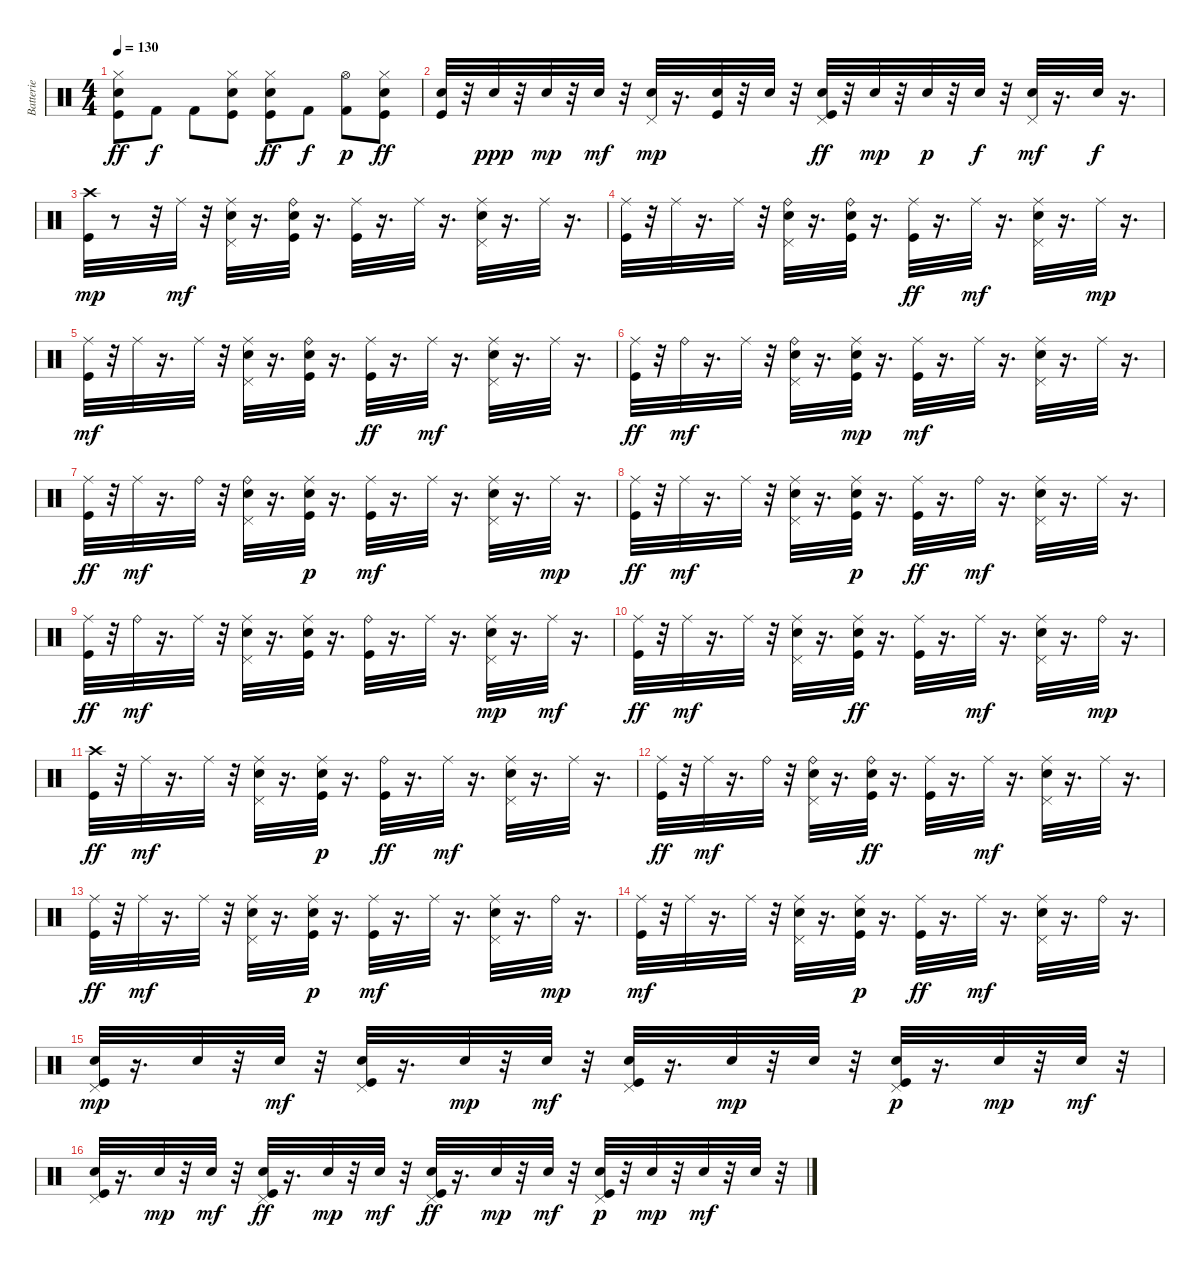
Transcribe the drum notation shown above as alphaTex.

\track ("Batterie" "Batterie") {instrument percussion}
\staff {score}
\articulation defaults
\ts (4 4)
\tempo 130
\clef neutral
\ks c
("Kick (hit)" "Electric Snare (hit)" "Hi-Hat (closed)").8{dy ff} "Kick (hit) 2".8{dy f} "Kick (hit) 2".8 ("Hi-Hat (closed)" "Kick (hit)" "Electric Snare (hit)").8 ("Kick (hit)" "Hi-Hat (closed)" "Electric Snare (hit)").8{dy ff} "Kick (hit) 2".8{dy f} ("Hi-Hat (open)" "Kick (hit) 2").8{dy p} ("Kick (hit)" "Hi-Hat (closed)" "Electric Snare (hit)").8{dy ff} |
("Electric Snare (hit)" "Kick (hit)").32 r.32 "Electric Snare (hit)".32{dy ppp} r.32 "Electric Snare (hit)".32{dy mp} r.32 "Electric Snare (hit)".32{dy mf} r.32 ("Pedal Hi-Hat (hit)" "Electric Snare (hit)").32{dy mp} r.16{d} ("Electric Snare (hit)" "Kick (hit)").32 r.32 "Electric Snare (hit)".32 r.32 ("Electric Snare (hit)" "Pedal Hi-Hat (hit)" "Kick (hit)").32{dy ff} r.32 "Electric Snare (hit)".32{dy mp} r.32 "Electric Snare (hit)".32{dy p} r.32 "Electric Snare (hit)".32{dy f} r.32 ("Pedal Hi-Hat (hit)" "Electric Snare (hit)").32{dy mf} r.16{d} "Electric Snare (hit)".32{dy f} r.16{d} |
("Kick (hit)" "Crash high (hit)").32{dy mp} r.8 r.32 "Ride (middle)".32{dy mf} r.32 ("Pedal Hi-Hat (hit)" "Electric Snare (hit)" "Ride (middle)").32 r.16{d} ("Kick (hit)" "Electric Snare (hit)" "Ride (bell)").32 r.16{d} ("Kick (hit)" "Ride (middle)").32 r.16{d} "Ride (middle)".32 r.16{d} ("Pedal Hi-Hat (hit)" "Ride (middle)" "Electric Snare (hit)").32 r.16{d} "Ride (middle)".32 r.16{d} |
("Kick (hit)" "Ride (middle)").32 r.32 "Ride (middle)".32 r.16{d} "Ride (middle)".32 r.32 ("Electric Snare (hit)" "Pedal Hi-Hat (hit)" "Ride (bell)").32 r.16{d} ("Kick (hit)" "Electric Snare (hit)" "Ride (bell)").32 r.16{d} ("Ride (middle)" "Kick (hit)").32{dy ff} r.16{d} "Ride (middle)".32{dy mf} r.16{d} ("Pedal Hi-Hat (hit)" "Ride (middle)" "Electric Snare (hit)").32 r.16{d} "Ride (middle)".32{dy mp} r.16{d} |
("Kick (hit)" "Ride (middle)").32{dy mf} r.32 "Ride (middle)".32 r.16{d} "Ride (middle)".32 r.32 ("Electric Snare (hit)" "Pedal Hi-Hat (hit)" "Ride (middle)").32 r.16{d} ("Kick (hit)" "Electric Snare (hit)" "Ride (bell)").32 r.16{d} ("Ride (middle)" "Kick (hit)").32{dy ff} r.16{d} "Ride (middle)".32{dy mf} r.16{d} ("Pedal Hi-Hat (hit)" "Electric Snare (hit)" "Ride (middle)").32 r.16{d} "Ride (middle)".32 r.16{d} |
("Kick (hit)" "Ride (middle)").32{dy ff} r.32 "Ride (bell)".32{dy mf} r.16{d} "Ride (middle)".32 r.32 ("Ride (bell)" "Pedal Hi-Hat (hit)" "Electric Snare (hit)").32 r.16{d} ("Electric Snare (hit)" "Ride (middle)" "Kick (hit)").32{dy mp} r.16{d} ("Kick (hit)" "Ride (middle)").32{dy mf} r.16{d} "Ride (middle)".32 r.16{d} ("Pedal Hi-Hat (hit)" "Ride (middle)" "Electric Snare (hit)").32 r.16{d} "Ride (middle)".32 r.16{d} |
("Ride (middle)" "Kick (hit)").32{dy ff} r.32 "Ride (middle)".32{dy mf} r.16{d} "Ride (bell)".32 r.32 ("Pedal Hi-Hat (hit)" "Ride (bell)" "Electric Snare (hit)").32 r.16{d} ("Electric Snare (hit)" "Ride (middle)" "Kick (hit)").32{dy p} r.16{d} ("Kick (hit)" "Ride (middle)").32{dy mf} r.16{d} "Ride (middle)".32 r.16{d} ("Pedal Hi-Hat (hit)" "Ride (middle)" "Electric Snare (hit)").32 r.16{d} "Ride (middle)".32{dy mp} r.16{d} |
("Ride (middle)" "Kick (hit)").32{dy ff} r.32 "Ride (middle)".32{dy mf} r.16{d} "Ride (middle)".32 r.32 ("Pedal Hi-Hat (hit)" "Ride (middle)" "Electric Snare (hit)").32 r.16{d} ("Electric Snare (hit)" "Ride (middle)" "Kick (hit)").32{dy p} r.16{d} ("Kick (hit)" "Ride (middle)").32{dy ff} r.16{d} "Ride (bell)".32{dy mf} r.16{d} ("Ride (middle)" "Pedal Hi-Hat (hit)" "Electric Snare (hit)").32 r.16{d} "Ride (middle)".32 r.16{d} |
("Kick (hit)" "Ride (middle)").32{dy ff} r.32 "Ride (bell)".32{dy mf} r.16{d} "Ride (middle)".32 r.32 ("Ride (middle)" "Pedal Hi-Hat (hit)" "Electric Snare (hit)").32 r.16{d} ("Electric Snare (hit)" "Kick (hit)" "Ride (middle)").32 r.16{d} ("Kick (hit)" "Ride (bell)").32 r.16{d} "Ride (middle)".32 r.16{d} ("Ride (middle)" "Pedal Hi-Hat (hit)" "Electric Snare (hit)").32{dy mp} r.16{d} "Ride (middle)".32{dy mf} r.16{d} |
("Ride (middle)" "Kick (hit)").32{dy ff} r.32 "Ride (middle)".32{dy mf} r.16{d} "Ride (middle)".32 r.32 ("Electric Snare (hit)" "Pedal Hi-Hat (hit)" "Ride (middle)").32 r.16{d} ("Kick (hit)" "Ride (middle)" "Electric Snare (hit)").32{dy ff} r.16{d} ("Ride (middle)" "Kick (hit)").32 r.16{d} "Ride (middle)".32{dy mf} r.16{d} ("Pedal Hi-Hat (hit)" "Ride (middle)" "Electric Snare (hit)").32 r.16{d} "Ride (bell)".32{dy mp} r.16{d} |
("Crash high (hit)" "Kick (hit)").32{dy ff} r.32 "Ride (middle)".32{dy mf} r.16{d} "Ride (middle)".32 r.32 ("Pedal Hi-Hat (hit)" "Ride (middle)" "Electric Snare (hit)").32 r.16{d} ("Electric Snare (hit)" "Ride (middle)" "Kick (hit)").32{dy p} r.16{d} ("Ride (bell)" "Kick (hit)").32{dy ff} r.16{d} "Ride (middle)".32{dy mf} r.16{d} ("Ride (middle)" "Electric Snare (hit)" "Pedal Hi-Hat (hit)").32 r.16{d} "Ride (middle)".32 r.16{d} |
("Ride (middle)" "Kick (hit)").32{dy ff} r.32 "Ride (middle)".32{dy mf} r.16{d} "Ride (bell)".32 r.32 ("Pedal Hi-Hat (hit)" "Ride (bell)" "Electric Snare (hit)").32 r.16{d} ("Kick (hit)" "Ride (bell)" "Electric Snare (hit)").32{dy ff} r.16{d} ("Ride (middle)" "Kick (hit)").32 r.16{d} "Ride (middle)".32{dy mf} r.16{d} ("Pedal Hi-Hat (hit)" "Ride (middle)" "Electric Snare (hit)").32 r.16{d} "Ride (middle)".32 r.16{d} |
("Ride (middle)" "Kick (hit)").32{dy ff} r.32 "Ride (middle)".32{dy mf} r.16{d} "Ride (middle)".32 r.32 ("Pedal Hi-Hat (hit)" "Ride (middle)" "Electric Snare (hit)").32 r.16{d} ("Electric Snare (hit)" "Ride (middle)" "Kick (hit)").32{dy p} r.16{d} ("Kick (hit)" "Ride (middle)").32{dy mf} r.16{d} "Ride (middle)".32 r.16{d} ("Pedal Hi-Hat (hit)" "Ride (middle)" "Electric Snare (hit)").32 r.16{d} "Ride (bell)".32{dy mp} r.16{d} |
("Kick (hit)" "Ride (middle)").32{dy mf} r.32 "Ride (middle)".32 r.16{d} "Ride (middle)".32 r.32 ("Electric Snare (hit)" "Pedal Hi-Hat (hit)" "Ride (middle)").32 r.16{d} ("Electric Snare (hit)" "Ride (middle)" "Kick (hit)").32{dy p} r.16{d} ("Kick (hit)" "Ride (middle)").32{dy ff} r.16{d} "Ride (middle)".32{dy mf} r.16{d} ("Electric Snare (hit)" "Pedal Hi-Hat (hit)" "Ride (middle)").32 r.16{d} "Ride (bell)".32 r.16{d} |
("Kick (hit)" "Electric Snare (hit)" "Pedal Hi-Hat (hit)").32{dy mp} r.16{d} "Electric Snare (hit)".32 r.32 "Electric Snare (hit)".32{dy mf} r.32 ("Kick (hit)" "Pedal Hi-Hat (hit)" "Electric Snare (hit)").32 r.16{d} "Electric Snare (hit)".32{dy mp} r.32 "Electric Snare (hit)".32{dy mf} r.32 ("Pedal Hi-Hat (hit)" "Kick (hit)" "Electric Snare (hit)").32 r.16{d} "Electric Snare (hit)".32{dy mp} r.32 "Electric Snare (hit)".32 r.32 ("Pedal Hi-Hat (hit)" "Kick (hit)" "Electric Snare (hit)").32{dy p} r.16{d} "Electric Snare (hit)".32{dy mp} r.32 "Electric Snare (hit)".32{dy mf} r.32 |
("Pedal Hi-Hat (hit)" "Kick (hit)" "Electric Snare (hit)").32 r.16{d} "Electric Snare (hit)".32{dy mp} r.32 "Electric Snare (hit)".32{dy mf} r.32 ("Pedal Hi-Hat (hit)" "Electric Snare (hit)" "Kick (hit)").32{dy ff} r.16{d} "Electric Snare (hit)".32{dy mp} r.32 "Electric Snare (hit)".32{dy mf} r.32 ("Electric Snare (hit)" "Pedal Hi-Hat (hit)" "Kick (hit)").32{dy ff} r.16{d} "Electric Snare (hit)".32{dy mp} r.32 "Electric Snare (hit)".32{dy mf} r.32 ("Pedal Hi-Hat (hit)" "Electric Snare (hit)" "Kick (hit)").32{dy p} r.32 "Electric Snare (hit)".32{dy mp} r.32 "Electric Snare (hit)".32{dy mf} r.32 "Electric Snare (hit)".32 r.32
